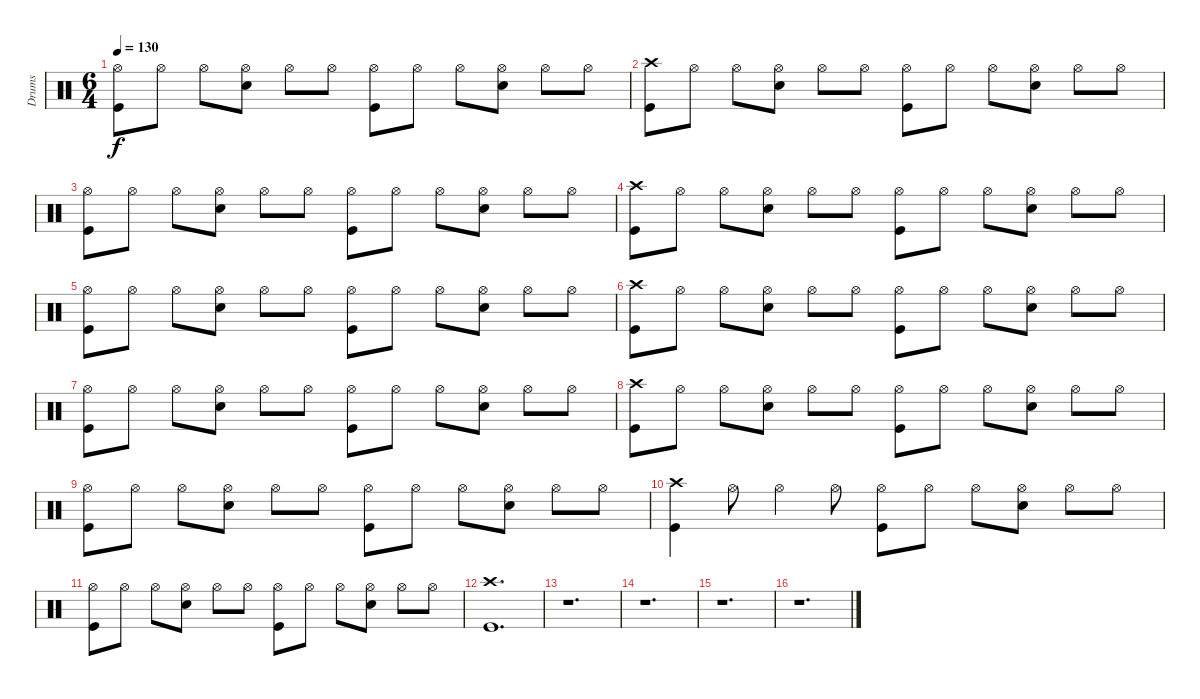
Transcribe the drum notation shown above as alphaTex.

\track ("Drums" "Drums") {instrument percussion}
\staff {score}
\articulation defaults
\ts (6 4)
\tempo 130
\clef neutral
\ks c
("Hi-Hat (open)" "Kick (hit)").8{dy f} "Hi-Hat (open)".8 "Hi-Hat (open)".8 ("Hi-Hat (open)" "Electric Snare (hit)").8 "Hi-Hat (open)".8 "Hi-Hat (open)".8 ("Hi-Hat (open)" "Kick (hit)").8 "Hi-Hat (open)".8 "Hi-Hat (open)".8 ("Hi-Hat (open)" "Electric Snare (hit)").8 "Hi-Hat (open)".8 "Hi-Hat (open)".8 |
("Crash high (hit)" "Kick (hit)").8 "Hi-Hat (open)".8 "Hi-Hat (open)".8 ("Hi-Hat (open)" "Electric Snare (hit)").8 "Hi-Hat (open)".8 "Hi-Hat (open)".8 ("Hi-Hat (open)" "Kick (hit)").8 "Hi-Hat (open)".8 "Hi-Hat (open)".8 ("Hi-Hat (open)" "Electric Snare (hit)").8 "Hi-Hat (open)".8 "Hi-Hat (open)".8 |
("Hi-Hat (open)" "Kick (hit)").8 "Hi-Hat (open)".8 "Hi-Hat (open)".8 ("Hi-Hat (open)" "Electric Snare (hit)").8 "Hi-Hat (open)".8 "Hi-Hat (open)".8 ("Hi-Hat (open)" "Kick (hit)").8 "Hi-Hat (open)".8 "Hi-Hat (open)".8 ("Hi-Hat (open)" "Electric Snare (hit)").8 "Hi-Hat (open)".8 "Hi-Hat (open)".8 |
("Crash high (hit)" "Kick (hit)").8 "Hi-Hat (open)".8 "Hi-Hat (open)".8 ("Hi-Hat (open)" "Electric Snare (hit)").8 "Hi-Hat (open)".8 "Hi-Hat (open)".8 ("Hi-Hat (open)" "Kick (hit)").8 "Hi-Hat (open)".8 "Hi-Hat (open)".8 ("Hi-Hat (open)" "Electric Snare (hit)").8 "Hi-Hat (open)".8 "Hi-Hat (open)".8 |
("Hi-Hat (open)" "Kick (hit)").8 "Hi-Hat (open)".8 "Hi-Hat (open)".8 ("Hi-Hat (open)" "Electric Snare (hit)").8 "Hi-Hat (open)".8 "Hi-Hat (open)".8 ("Hi-Hat (open)" "Kick (hit)").8 "Hi-Hat (open)".8 "Hi-Hat (open)".8 ("Hi-Hat (open)" "Electric Snare (hit)").8 "Hi-Hat (open)".8 "Hi-Hat (open)".8 |
("Crash high (hit)" "Kick (hit)").8 "Hi-Hat (open)".8 "Hi-Hat (open)".8 ("Hi-Hat (open)" "Electric Snare (hit)").8 "Hi-Hat (open)".8 "Hi-Hat (open)".8 ("Hi-Hat (open)" "Kick (hit)").8 "Hi-Hat (open)".8 "Hi-Hat (open)".8 ("Hi-Hat (open)" "Electric Snare (hit)").8 "Hi-Hat (open)".8 "Hi-Hat (open)".8 |
("Hi-Hat (open)" "Kick (hit)").8 "Hi-Hat (open)".8 "Hi-Hat (open)".8 ("Hi-Hat (open)" "Electric Snare (hit)").8 "Hi-Hat (open)".8 "Hi-Hat (open)".8 ("Hi-Hat (open)" "Kick (hit)").8 "Hi-Hat (open)".8 "Hi-Hat (open)".8 ("Hi-Hat (open)" "Electric Snare (hit)").8 "Hi-Hat (open)".8 "Hi-Hat (open)".8 |
("Crash high (hit)" "Kick (hit)").8 "Hi-Hat (open)".8 "Hi-Hat (open)".8 ("Hi-Hat (open)" "Electric Snare (hit)").8 "Hi-Hat (open)".8 "Hi-Hat (open)".8 ("Hi-Hat (open)" "Kick (hit)").8 "Hi-Hat (open)".8 "Hi-Hat (open)".8 ("Hi-Hat (open)" "Electric Snare (hit)").8 "Hi-Hat (open)".8 "Hi-Hat (open)".8 |
("Hi-Hat (open)" "Kick (hit)").8 "Hi-Hat (open)".8 "Hi-Hat (open)".8 ("Hi-Hat (open)" "Electric Snare (hit)").8 "Hi-Hat (open)".8 "Hi-Hat (open)".8 ("Hi-Hat (open)" "Kick (hit)").8 "Hi-Hat (open)".8 "Hi-Hat (open)".8 ("Hi-Hat (open)" "Electric Snare (hit)").8 "Hi-Hat (open)".8 "Hi-Hat (open)".8 |
("Crash high (hit)" "Kick (hit)").4 "Hi-Hat (open)".8 "Hi-Hat (open)".4 "Hi-Hat (open)".8 ("Hi-Hat (open)" "Kick (hit)").8 "Hi-Hat (open)".8 "Hi-Hat (open)".8 ("Hi-Hat (open)" "Electric Snare (hit)").8 "Hi-Hat (open)".8 "Hi-Hat (open)".8 |
("Hi-Hat (open)" "Kick (hit)").8 "Hi-Hat (open)".8 "Hi-Hat (open)".8 ("Hi-Hat (open)" "Electric Snare (hit)").8 "Hi-Hat (open)".8 "Hi-Hat (open)".8 ("Hi-Hat (open)" "Kick (hit)").8 "Hi-Hat (open)".8 "Hi-Hat (open)".8 ("Hi-Hat (open)" "Electric Snare (hit)").8 "Hi-Hat (open)".8 "Hi-Hat (open)".8 |
("Crash high (hit)" "Kick (hit)").1{d} |
r.1{d} |
r.1{d} |
r.1{d} |
r.1{d}
